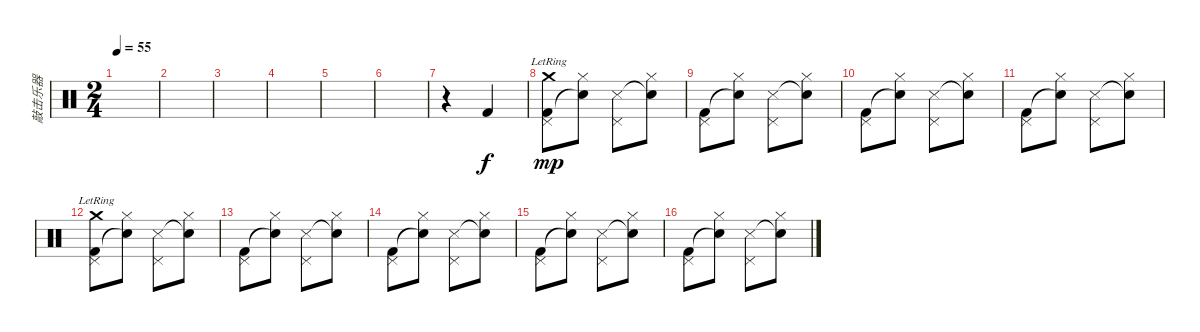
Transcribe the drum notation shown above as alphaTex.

\track ("敲击乐器" "敲击乐器") {instrument percussion}
\staff {score}
\articulation defaults
\ts (2 4)
\tempo 55
\clef neutral
\ks c
|
|
|
|
|
|
r.4 "Kick (hit) 2".4 |
("Kick (hit) 2" "Crash medium (hit)"{lr} "Pedal Hi-Hat (hit)").8{dy mp} ("Snare (hit)"{t} "Hi-Hat (closed)").8 ("Snare (side stick) 3" "Pedal Hi-Hat (hit)").8 ("Snare (hit)"{t} "Hi-Hat (closed)").8 |
("Kick (hit) 2" "Pedal Hi-Hat (hit)").8 ("Snare (hit)"{t} "Hi-Hat (closed)").8 ("Snare (side stick) 3" "Pedal Hi-Hat (hit)").8 ("Snare (hit)"{t} "Hi-Hat (closed)").8 |
("Kick (hit) 2" "Pedal Hi-Hat (hit)").8 ("Snare (hit)"{t} "Hi-Hat (closed)").8 ("Snare (side stick) 3" "Pedal Hi-Hat (hit)").8 ("Snare (hit)"{t} "Hi-Hat (closed)").8 |
("Kick (hit) 2" "Pedal Hi-Hat (hit)").8 ("Snare (hit)"{t} "Hi-Hat (closed)").8 ("Snare (side stick) 3" "Pedal Hi-Hat (hit)").8 ("Snare (hit)"{t} "Hi-Hat (closed)").8 |
("Kick (hit) 2" "Crash medium (hit)"{lr} "Pedal Hi-Hat (hit)").8 ("Snare (hit)"{t} "Hi-Hat (closed)").8 ("Snare (side stick) 3" "Pedal Hi-Hat (hit)").8 ("Snare (hit)"{t} "Hi-Hat (closed)").8 |
("Kick (hit) 2" "Pedal Hi-Hat (hit)").8 ("Snare (hit)"{t} "Hi-Hat (closed)").8 ("Snare (side stick) 3" "Pedal Hi-Hat (hit)").8 ("Snare (hit)"{t} "Hi-Hat (closed)").8 |
("Kick (hit) 2" "Pedal Hi-Hat (hit)").8 ("Snare (hit)"{t} "Hi-Hat (closed)").8 ("Snare (side stick) 3" "Pedal Hi-Hat (hit)").8 ("Snare (hit)"{t} "Hi-Hat (closed)").8 |
("Kick (hit) 2" "Pedal Hi-Hat (hit)").8 ("Snare (hit)"{t} "Hi-Hat (closed)").8 ("Snare (side stick) 3" "Pedal Hi-Hat (hit)").8 ("Snare (hit)"{t} "Hi-Hat (closed)").8 |
("Kick (hit) 2" "Pedal Hi-Hat (hit)").8 ("Snare (hit)"{t} "Hi-Hat (closed)").8 ("Snare (side stick) 3" "Pedal Hi-Hat (hit)").8 ("Snare (hit)"{t} "Hi-Hat (closed)").8
